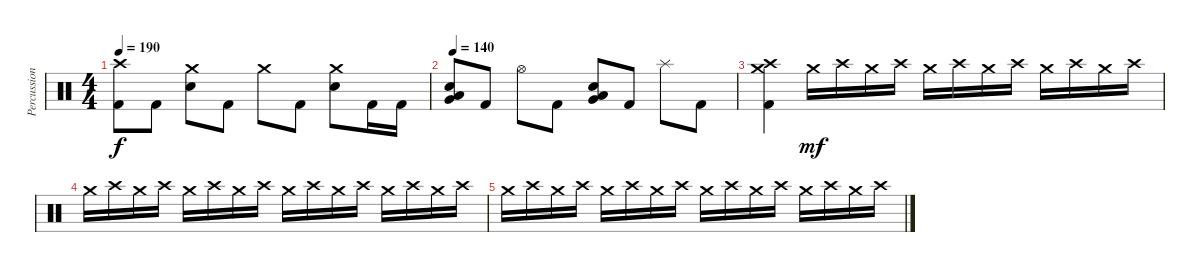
\track ("Percussion" "Percussion") {instrument percussion}
\staff {score}
\articulation defaults
\ts (4 4)
\tempo 190
\clef neutral
\ks c
("Crash high (hit)" "Kick (hit) 2").8{dy f} "Kick (hit) 2".8 ("Crash medium (hit)" "Electric Snare (hit)").8 "Kick (hit) 2".8 "Crash medium (hit)".8 "Kick (hit) 2".8 ("Crash medium (hit)" "Electric Snare (hit)").8 "Kick (hit) 2".16 "Kick (hit) 2".16 |
\tempo 140
("Very Low Tom (hit)" "Low Floor Tom (hit)" "Electric Snare (hit)").8 "Kick (hit) 2".8 "Hi-Hat (open)".8 "Kick (hit) 2".8 ("Very Low Tom (hit)" "Low Floor Tom (hit)" "Electric Snare (hit)").8 "Kick (hit) 2".8 "Splash (hit)".8 "Kick (hit) 2".8 |
("Crash medium (hit)" "Crash high (hit)" "Kick (hit) 2").4 "Crash medium (hit)".16{dy mf volume 0} "Crash high (hit)".16 "Crash medium (hit)".16 "Crash high (hit)".16 "Crash medium (hit)".16 "Crash high (hit)".16 "Crash medium (hit)".16 "Crash high (hit)".16 "Crash medium (hit)".16 "Crash high (hit)".16 "Crash medium (hit)".16 "Crash high (hit)".16 |
"Crash medium (hit)".16 "Crash high (hit)".16 "Crash medium (hit)".16 "Crash high (hit)".16 "Crash medium (hit)".16 "Crash high (hit)".16 "Crash medium (hit)".16 "Crash high (hit)".16 "Crash medium (hit)".16 "Crash high (hit)".16 "Crash medium (hit)".16 "Crash high (hit)".16 "Crash medium (hit)".16 "Crash high (hit)".16 "Crash medium (hit)".16 "Crash high (hit)".16 |
"Crash medium (hit)".16 "Crash high (hit)".16 "Crash medium (hit)".16 "Crash high (hit)".16 "Crash medium (hit)".16 "Crash high (hit)".16 "Crash medium (hit)".16 "Crash high (hit)".16 "Crash medium (hit)".16 "Crash high (hit)".16 "Crash medium (hit)".16 "Crash high (hit)".16 "Crash medium (hit)".16 "Crash high (hit)".16 "Crash medium (hit)".16 "Crash high (hit)".16
